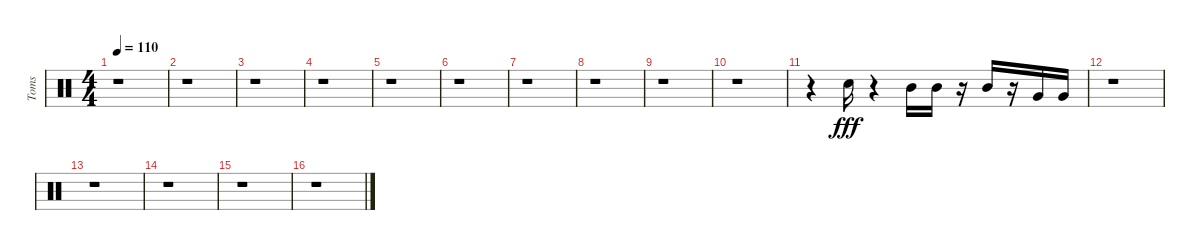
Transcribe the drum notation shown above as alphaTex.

\track ("Toms" "Toms") {instrument percussion}
\staff {score}
\articulation defaults
\ts (4 4)
\tempo 110
\clef neutral
\ks c
r.1{dy fff} |
r.1 |
r.1 |
r.1 |
r.1 |
r.1 |
r.1 |
r.1 |
r.1 |
r.1 |
r.4 "Snare (hit) 2".16 r.4 "Mid Tom (hit)".16 "Mid Tom (hit)".16 r.16 "Mid Tom (hit)".16 r.16 "Very Low Tom (hit)".16 "Very Low Tom (hit)".16 |
r.1 |
r.1 |
r.1 |
r.1 |
r.1
